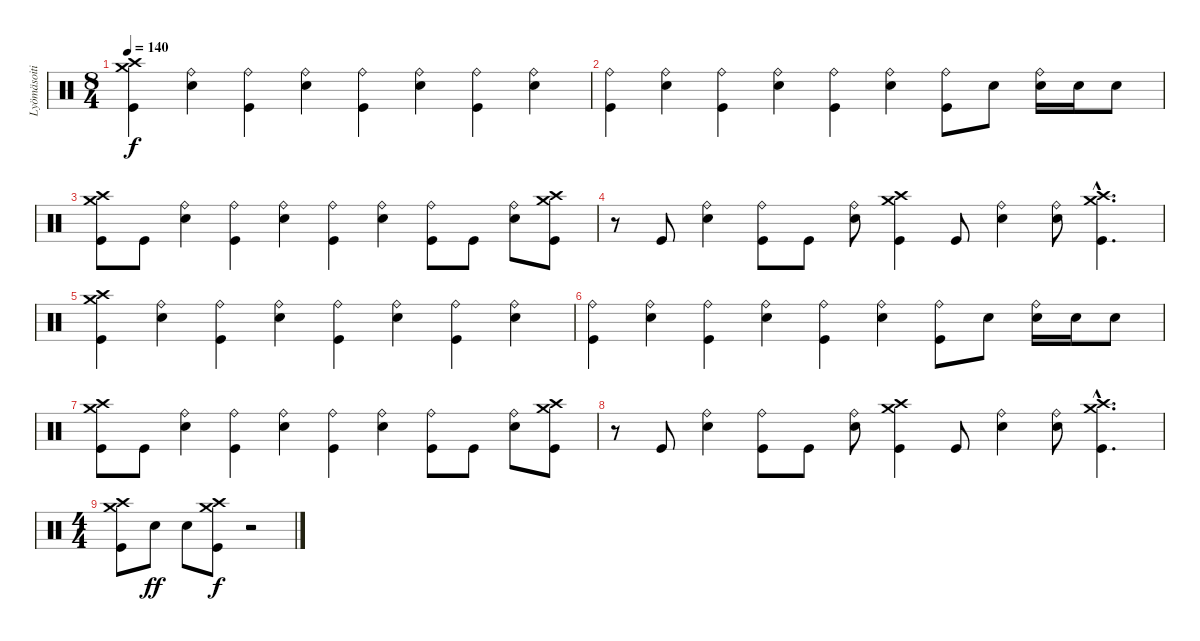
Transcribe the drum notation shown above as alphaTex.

\track ("Lyömäsoitin" "Lyömäsoiti") {instrument percussion}
\staff {score}
\articulation defaults
\ts (8 4)
\tempo 140
\clef neutral
\ks c
("Crash medium (hit)" "Crash high (hit)" "Kick (hit)").4{dy f} ("Ride (bell)" "Snare (hit) 2").4 ("Ride (bell)" "Kick (hit)").4 ("Ride (bell)" "Snare (hit) 2").4 ("Ride (bell)" "Kick (hit)").4 ("Ride (bell)" "Snare (hit) 2").4 ("Ride (bell)" "Kick (hit)").4 ("Ride (bell)" "Snare (hit) 2").4 |
("Ride (bell)" "Kick (hit)").4 ("Ride (bell)" "Snare (hit) 2").4 ("Ride (bell)" "Kick (hit)").4 ("Ride (bell)" "Snare (hit) 2").4 ("Ride (bell)" "Kick (hit)").4 ("Ride (bell)" "Snare (hit) 2").4 ("Ride (bell)" "Kick (hit)").8 "Snare (hit) 2".8 ("Ride (bell)" "Snare (hit) 2").16 "Snare (hit) 2".16 "Snare (hit) 2".8 |
("Crash medium (hit)" "Crash high (hit)" "Kick (hit)").8 "Kick (hit)".8 ("Ride (bell)" "Snare (hit) 2").4 ("Ride (bell)" "Kick (hit)").4 ("Ride (bell)" "Snare (hit) 2").4 ("Ride (bell)" "Kick (hit)").4 ("Ride (bell)" "Snare (hit) 2").4 ("Ride (bell)" "Kick (hit)").8 "Kick (hit)".8 ("Ride (bell)" "Snare (hit) 2").8 ("Crash medium (hit)" "Crash high (hit)" "Kick (hit)").8 |
r.8 "Kick (hit)".8 ("Ride (bell)" "Snare (hit) 2").4 ("Ride (bell)" "Kick (hit)").8 "Kick (hit)".8 ("Ride (bell)" "Snare (hit) 2").8 ("Crash medium (hit)" "Crash high (hit)" "Kick (hit)").4 "Kick (hit)".8 ("Ride (bell)" "Snare (hit) 2").4 ("Ride (bell)" "Snare (hit) 2").8 ("Crash medium (hit)"{hac} "Crash high (hit)"{hac} "Kick (hit)"{hac}).4{d} |
("Crash medium (hit)" "Crash high (hit)" "Kick (hit)").4 ("Ride (bell)" "Snare (hit) 2").4 ("Ride (bell)" "Kick (hit)").4 ("Ride (bell)" "Snare (hit) 2").4 ("Ride (bell)" "Kick (hit)").4 ("Ride (bell)" "Snare (hit) 2").4 ("Ride (bell)" "Kick (hit)").4 ("Ride (bell)" "Snare (hit) 2").4 |
("Ride (bell)" "Kick (hit)").4 ("Ride (bell)" "Snare (hit) 2").4 ("Ride (bell)" "Kick (hit)").4 ("Ride (bell)" "Snare (hit) 2").4 ("Ride (bell)" "Kick (hit)").4 ("Ride (bell)" "Snare (hit) 2").4 ("Ride (bell)" "Kick (hit)").8 "Snare (hit) 2".8 ("Ride (bell)" "Snare (hit) 2").16 "Snare (hit) 2".16 "Snare (hit) 2".8 |
("Crash medium (hit)" "Crash high (hit)" "Kick (hit)").8 "Kick (hit)".8 ("Ride (bell)" "Snare (hit) 2").4 ("Ride (bell)" "Kick (hit)").4 ("Ride (bell)" "Snare (hit) 2").4 ("Ride (bell)" "Kick (hit)").4 ("Ride (bell)" "Snare (hit) 2").4 ("Ride (bell)" "Kick (hit)").8 "Kick (hit)".8 ("Ride (bell)" "Snare (hit) 2").8 ("Crash medium (hit)" "Crash high (hit)" "Kick (hit)").8 |
r.8 "Kick (hit)".8 ("Ride (bell)" "Snare (hit) 2").4 ("Ride (bell)" "Kick (hit)").8 "Kick (hit)".8 ("Ride (bell)" "Snare (hit) 2").8 ("Crash medium (hit)" "Crash high (hit)" "Kick (hit)").4 "Kick (hit)".8 ("Ride (bell)" "Snare (hit) 2").4 ("Ride (bell)" "Snare (hit) 2").8 ("Crash medium (hit)"{hac} "Crash high (hit)"{hac} "Kick (hit)"{hac}).4{d} |
\ts (4 4)
("Crash medium (hit)" "Crash high (hit)" "Kick (hit)").8 "Snare (hit) 2".8{dy ff} "Snare (hit) 2".8 ("Crash medium (hit)" "Crash high (hit)" "Kick (hit)").8{dy f} r.2
